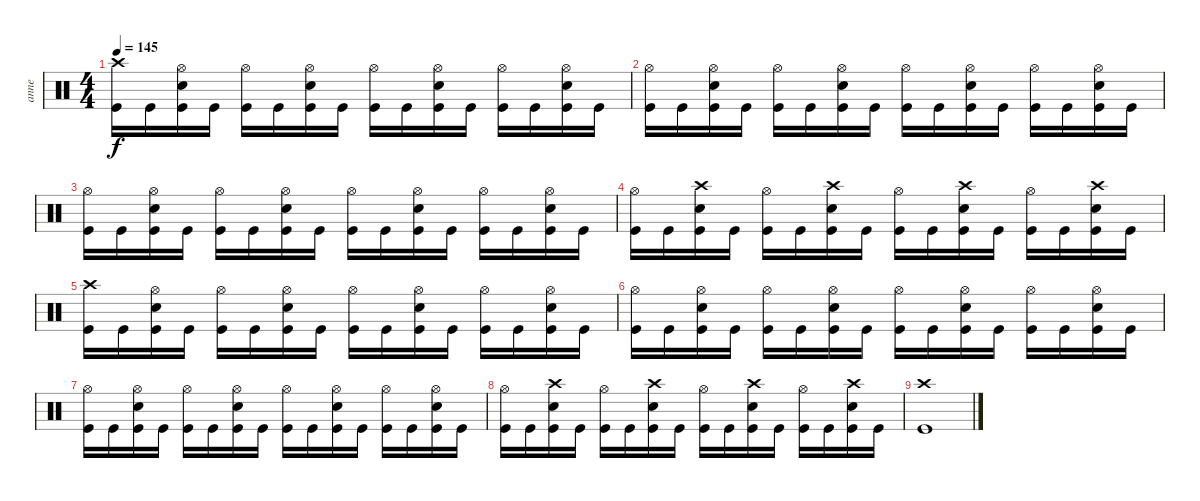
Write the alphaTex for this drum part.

\track ("anne" "anne") {instrument percussion}
\staff {score}
\articulation defaults
\ts (4 4)
\tempo 145
\clef neutral
\ks c
("Crash high (hit)" "Kick (hit)").16{dy f} "Kick (hit)".16 ("Hi-Hat (open)" "Snare (hit) 2" "Kick (hit)").16 "Kick (hit)".16 ("Hi-Hat (open)" "Kick (hit)").16 "Kick (hit)".16 ("Hi-Hat (open)" "Snare (hit) 2" "Kick (hit)").16 "Kick (hit)".16 ("Hi-Hat (open)" "Kick (hit)").16 "Kick (hit)".16 ("Hi-Hat (open)" "Snare (hit) 2" "Kick (hit)").16 "Kick (hit)".16 ("Hi-Hat (open)" "Kick (hit)").16 "Kick (hit)".16 ("Hi-Hat (open)" "Snare (hit) 2" "Kick (hit)").16 "Kick (hit)".16 |
("Hi-Hat (open)" "Kick (hit)").16 "Kick (hit)".16 ("Hi-Hat (open)" "Snare (hit) 2" "Kick (hit)").16 "Kick (hit)".16 ("Hi-Hat (open)" "Kick (hit)").16 "Kick (hit)".16 ("Hi-Hat (open)" "Snare (hit) 2" "Kick (hit)").16 "Kick (hit)".16 ("Hi-Hat (open)" "Kick (hit)").16 "Kick (hit)".16 ("Hi-Hat (open)" "Snare (hit) 2" "Kick (hit)").16 "Kick (hit)".16 ("Hi-Hat (open)" "Kick (hit)").16 "Kick (hit)".16 ("Hi-Hat (open)" "Snare (hit) 2" "Kick (hit)").16 "Kick (hit)".16 |
("Hi-Hat (open)" "Kick (hit)").16 "Kick (hit)".16 ("Hi-Hat (open)" "Snare (hit) 2" "Kick (hit)").16 "Kick (hit)".16 ("Hi-Hat (open)" "Kick (hit)").16 "Kick (hit)".16 ("Hi-Hat (open)" "Snare (hit) 2" "Kick (hit)").16 "Kick (hit)".16 ("Hi-Hat (open)" "Kick (hit)").16 "Kick (hit)".16 ("Hi-Hat (open)" "Snare (hit) 2" "Kick (hit)").16 "Kick (hit)".16 ("Hi-Hat (open)" "Kick (hit)").16 "Kick (hit)".16 ("Hi-Hat (open)" "Snare (hit) 2" "Kick (hit)").16 "Kick (hit)".16 |
("Hi-Hat (open)" "Kick (hit)").16 "Kick (hit)".16 ("Crash high (hit)" "Snare (hit) 2" "Kick (hit)").16 "Kick (hit)".16 ("Hi-Hat (open)" "Kick (hit)").16 "Kick (hit)".16 ("Crash high (hit)" "Snare (hit) 2" "Kick (hit)").16 "Kick (hit)".16 ("Hi-Hat (open)" "Kick (hit)").16 "Kick (hit)".16 ("Crash high (hit)" "Snare (hit) 2" "Kick (hit)").16 "Kick (hit)".16 ("Hi-Hat (open)" "Kick (hit)").16 "Kick (hit)".16 ("Crash high (hit)" "Snare (hit) 2" "Kick (hit)").16 "Kick (hit)".16 |
("Crash high (hit)" "Kick (hit)").16 "Kick (hit)".16 ("Hi-Hat (open)" "Snare (hit) 2" "Kick (hit)").16 "Kick (hit)".16 ("Hi-Hat (open)" "Kick (hit)").16 "Kick (hit)".16 ("Hi-Hat (open)" "Snare (hit) 2" "Kick (hit)").16 "Kick (hit)".16 ("Hi-Hat (open)" "Kick (hit)").16 "Kick (hit)".16 ("Hi-Hat (open)" "Snare (hit) 2" "Kick (hit)").16 "Kick (hit)".16 ("Hi-Hat (open)" "Kick (hit)").16 "Kick (hit)".16 ("Hi-Hat (open)" "Snare (hit) 2" "Kick (hit)").16 "Kick (hit)".16 |
("Hi-Hat (open)" "Kick (hit)").16 "Kick (hit)".16 ("Hi-Hat (open)" "Snare (hit) 2" "Kick (hit)").16 "Kick (hit)".16 ("Hi-Hat (open)" "Kick (hit)").16 "Kick (hit)".16 ("Hi-Hat (open)" "Snare (hit) 2" "Kick (hit)").16 "Kick (hit)".16 ("Hi-Hat (open)" "Kick (hit)").16 "Kick (hit)".16 ("Hi-Hat (open)" "Snare (hit) 2" "Kick (hit)").16 "Kick (hit)".16 ("Hi-Hat (open)" "Kick (hit)").16 "Kick (hit)".16 ("Hi-Hat (open)" "Snare (hit) 2" "Kick (hit)").16 "Kick (hit)".16 |
("Hi-Hat (open)" "Kick (hit)").16 "Kick (hit)".16 ("Hi-Hat (open)" "Snare (hit) 2" "Kick (hit)").16 "Kick (hit)".16 ("Hi-Hat (open)" "Kick (hit)").16 "Kick (hit)".16 ("Hi-Hat (open)" "Snare (hit) 2" "Kick (hit)").16 "Kick (hit)".16 ("Hi-Hat (open)" "Kick (hit)").16 "Kick (hit)".16 ("Hi-Hat (open)" "Snare (hit) 2" "Kick (hit)").16 "Kick (hit)".16 ("Hi-Hat (open)" "Kick (hit)").16 "Kick (hit)".16 ("Hi-Hat (open)" "Snare (hit) 2" "Kick (hit)").16 "Kick (hit)".16 |
("Hi-Hat (open)" "Kick (hit)").16 "Kick (hit)".16 ("Crash high (hit)" "Snare (hit) 2" "Kick (hit)").16 "Kick (hit)".16 ("Hi-Hat (open)" "Kick (hit)").16 "Kick (hit)".16 ("Crash high (hit)" "Snare (hit) 2" "Kick (hit)").16 "Kick (hit)".16 ("Hi-Hat (open)" "Kick (hit)").16 "Kick (hit)".16 ("Crash high (hit)" "Snare (hit) 2" "Kick (hit)").16 "Kick (hit)".16 ("Hi-Hat (open)" "Kick (hit)").16 "Kick (hit)".16 ("Crash high (hit)" "Snare (hit) 2" "Kick (hit)").16 "Kick (hit)".16 |
("Kick (hit)" "Crash high (hit)").1
